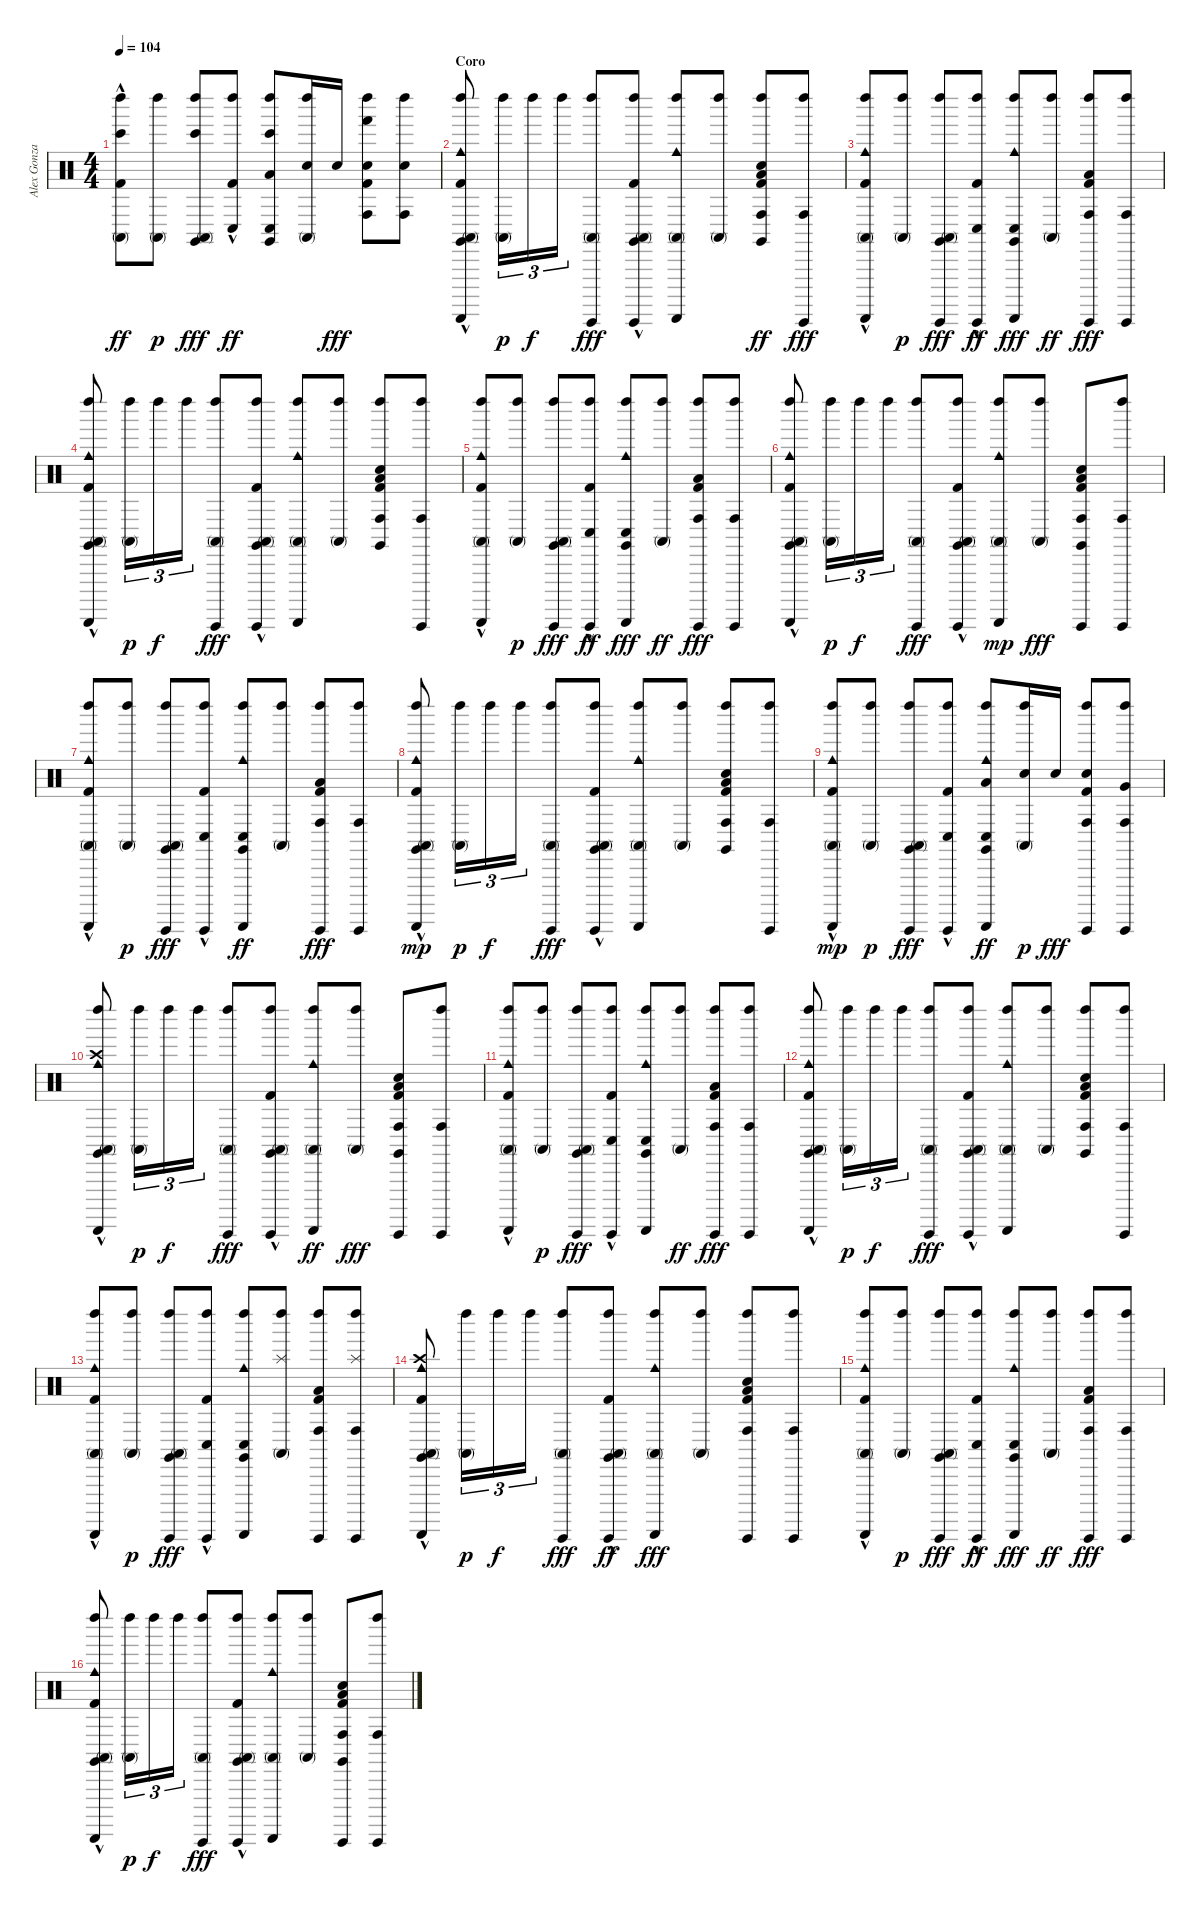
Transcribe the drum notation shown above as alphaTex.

\track ("Alex Gonzalez" "Alex Gonza") {instrument percussion}
\staff {score}
\articulation defaults
\ts (4 4)
\tempo 104
\clef neutral
\ks c
("Conga high (mute)" "Kick (hit) 2"{hac} "Bongo High (hit)" "Left Maraca (hit)").8{dy ff} ("Conga high (mute)" "Left Maraca (hit)").8{dy p} ("Claves (hit)" "Conga high (mute)" "Bongo High (hit)" "Left Maraca (hit)").8{dy fff} ("Conga low (hit)" "Kick (hit) 2"{hac} "Left Maraca (hit)").8{dy ff} ("Low Tom (hit)" "Bongo High (hit)" "Claves (hit)" "Conga low (hit)" "Left Maraca (hit)").8 ("Electric Snare (hit)" "Conga high (mute)" "Left Maraca (hit)").16 "Electric Snare (hit)".16{dy fff} ("Left Maraca (hit)" "Kick (hit) 2" "Electric Snare (hit)" "Conga high (hit)" "Hand (hit)").8 ("Conga high (hit)" "Left Maraca (hit)" "Electric Snare (hit)").8 |
\section ("" "Coro")
("Conga high (mute)" "Claves (hit)"{hac} "Kick (hit) 2"{hac} "Left Maraca (hit)" "Cowbell medium (hit)" "Guiro (scrap-return)").8 ("Conga high (mute)" "Left Maraca (hit)").16{tu (3 2) dy p} "Left Maraca (hit)".16{tu (3 2) dy f} "Left Maraca (hit)".16{tu (3 2)} ("Conga high (mute)" "Left Maraca (hit)" "Guiro (hit)").8{dy fff} ("Claves (hit)"{hac} "Conga high (mute)" "Kick (hit) 2"{hac} "Left Maraca (hit)" "Guiro (hit)").8 ("Conga high (mute)" "Left Maraca (hit)" "Cowbell medium (hit)" "Guiro (scrap-return)").8 ("Conga high (mute)" "Left Maraca (hit)").8 ("Claves (hit)" "Conga high (hit)" "Kick (hit) 2" "Low Tom (hit)" "Electric Snare (hit)" "Left Maraca (hit)").8{dy ff} ("Conga high (hit)" "Left Maraca (hit)" "Guiro (hit)").8{dy fff} |
("Conga high (mute)" "Kick (hit) 2"{hac} "Left Maraca (hit)" "Cowbell medium (hit)" "Guiro (scrap-return)").8 ("Conga high (mute)" "Left Maraca (hit)").8{dy p} ("Conga high (mute)" "Claves (hit)" "Guiro (hit)" "Left Maraca (hit)").8{dy fff} ("Guiro (hit)" "Left Maraca (hit)" "Kick (hit) 2"{hac} "Conga low (hit)").8{dy ff} ("Claves (hit)" "Conga low (hit)" "Left Maraca (hit)" "Cowbell medium (hit)" "Guiro (scrap-return)").8{dy fff} ("Conga high (mute)" "Left Maraca (hit)").8{dy ff} ("Conga high (hit)" "Kick (hit) 2" "Left Maraca (hit)" "Low Tom (hit)" "Guiro (hit)").8{dy fff} ("Conga high (hit)" "Left Maraca (hit)" "Guiro (hit)").8 |
("Claves (hit)"{hac} "Guiro (scrap-return)" "Kick (hit) 2"{hac} "Cowbell medium (hit)" "Conga high (mute)" "Left Maraca (hit)").8 ("Conga high (mute)" "Left Maraca (hit)").16{tu (3 2) dy p} "Left Maraca (hit)".16{tu (3 2) dy f} "Left Maraca (hit)".16{tu (3 2)} ("Conga high (mute)" "Left Maraca (hit)" "Guiro (hit)").8{dy fff} ("Claves (hit)"{hac} "Left Maraca (hit)" "Guiro (hit)" "Conga high (mute)" "Kick (hit) 2"{hac}).8 ("Conga high (mute)" "Left Maraca (hit)" "Cowbell medium (hit)" "Guiro (scrap-return)").8 ("Conga high (mute)" "Left Maraca (hit)").8 ("Claves (hit)" "Conga high (hit)" "Kick (hit) 2" "Left Maraca (hit)" "Low Tom (hit)" "Electric Snare (hit)").8 ("Guiro (hit)" "Conga high (hit)" "Left Maraca (hit)").8 |
("Kick (hit) 2"{hac} "Conga high (mute)" "Left Maraca (hit)" "Guiro (scrap-return)" "Cowbell medium (hit)").8 ("Conga high (mute)" "Left Maraca (hit)").8{dy p} ("Guiro (hit)" "Left Maraca (hit)" "Conga high (mute)" "Claves (hit)").8{dy fff} ("Left Maraca (hit)" "Kick (hit) 2"{hac} "Guiro (hit)" "Conga low (hit)").8{dy ff} ("Left Maraca (hit)" "Claves (hit)" "Guiro (scrap-return)" "Conga low (hit)" "Cowbell medium (hit)").8{dy fff} ("Conga high (mute)" "Left Maraca (hit)").8{dy ff} ("Left Maraca (hit)" "Kick (hit) 2" "Guiro (hit)" "Low Tom (hit)" "Conga high (hit)").8{dy fff} ("Conga high (hit)" "Left Maraca (hit)" "Guiro (hit)").8 |
("Cowbell medium (hit)" "Guiro (scrap-return)" "Conga high (mute)" "Claves (hit)"{hac} "Kick (hit) 2"{hac} "Left Maraca (hit)").8 ("Conga high (mute)" "Left Maraca (hit)").16{tu (3 2) dy p} "Left Maraca (hit)".16{tu (3 2) dy f} "Left Maraca (hit)".16{tu (3 2)} ("Left Maraca (hit)" "Guiro (hit)" "Conga high (mute)").8{dy fff} ("Claves (hit)"{hac} "Conga high (mute)" "Kick (hit) 2"{hac} "Left Maraca (hit)" "Guiro (hit)").8 ("Guiro (scrap-return)" "Cowbell medium (hit)" "Left Maraca (hit)" "Conga high (mute)").8{dy mp} ("Conga high (mute)" "Left Maraca (hit)").8{dy fff} ("Electric Snare (hit)" "Kick (hit) 2" "Conga high (hit)" "Low Tom (hit)" "Guiro (hit)" "Claves (hit)").8 ("Left Maraca (hit)" "Guiro (hit)" "Conga high (hit)").8 |
("Conga high (mute)" "Kick (hit) 2"{hac} "Left Maraca (hit)" "Cowbell medium (hit)" "Guiro (scrap-return)").8 ("Conga high (mute)" "Left Maraca (hit)").8{dy p} ("Claves (hit)" "Left Maraca (hit)" "Guiro (hit)" "Conga high (mute)").8{dy fff} ("Conga low (hit)" "Kick (hit) 2"{hac} "Left Maraca (hit)" "Guiro (hit)").8 ("Guiro (scrap-return)" "Cowbell medium (hit)" "Claves (hit)" "Left Maraca (hit)" "Conga low (hit)").8{dy ff} ("Conga high (mute)" "Left Maraca (hit)").8 ("Left Maraca (hit)" "Conga high (hit)" "Guiro (hit)" "Kick (hit) 2" "Low Tom (hit)").8{dy fff} ("Conga high (hit)" "Left Maraca (hit)" "Guiro (hit)").8 |
("Cowbell medium (hit)" "Claves (hit)"{hac} "Guiro (scrap-return)" "Kick (hit) 2"{hac} "Left Maraca (hit)" "Conga high (mute)").8{dy mp} ("Conga high (mute)" "Left Maraca (hit)").16{tu (3 2) dy p} "Left Maraca (hit)".16{tu (3 2) dy f} "Left Maraca (hit)".16{tu (3 2)} ("Conga high (mute)" "Left Maraca (hit)" "Guiro (hit)").8{dy fff} ("Claves (hit)"{hac} "Conga high (mute)" "Kick (hit) 2"{hac} "Left Maraca (hit)" "Guiro (hit)").8 ("Conga high (mute)" "Left Maraca (hit)" "Cowbell medium (hit)" "Guiro (scrap-return)").8 ("Conga high (mute)" "Left Maraca (hit)").8 ("Claves (hit)" "Conga high (hit)" "Kick (hit) 2" "Left Maraca (hit)" "Low Tom (hit)" "Electric Snare (hit)").8 ("Conga high (hit)" "Left Maraca (hit)" "Guiro (hit)").8 |
("Kick (hit) 2"{hac} "Left Maraca (hit)" "Cowbell medium (hit)" "Guiro (scrap-return)" "Conga high (mute)").8{dy mp} ("Conga high (mute)" "Left Maraca (hit)").8{dy p} ("Claves (hit)" "Conga high (mute)" "Left Maraca (hit)" "Guiro (hit)").8{dy fff} ("Conga low (hit)" "Kick (hit) 2"{hac} "Left Maraca (hit)" "Guiro (hit)").8 ("Cowbell medium (hit)" "Low Tom (hit)" "Conga low (hit)" "Guiro (scrap-return)" "Claves (hit)" "Left Maraca (hit)").8{dy ff} ("Left Maraca (hit)" "Electric Snare (hit)" "Conga high (mute)").16{dy p} "Electric Snare (hit)".16{dy fff} ("Guiro (hit)" "Left Maraca (hit)" "Conga high (hit)" "Electric Snare (hit)" "Kick (hit) 2").8 ("Conga high (hit)" "Left Maraca (hit)" "Guiro (hit)" "Very Low Tom (hit)").8 |
("Guiro (scrap-return)" "Crash high (hit)" "Claves (hit)"{hac} "Conga high (mute)" "Cowbell medium (hit)" "Left Maraca (hit)").8 ("Conga high (mute)" "Left Maraca (hit)").16{tu (3 2) dy p} "Left Maraca (hit)".16{tu (3 2) dy f} "Left Maraca (hit)".16{tu (3 2)} ("Conga high (mute)" "Left Maraca (hit)" "Guiro (hit)").8{dy fff} ("Claves (hit)"{hac} "Conga high (mute)" "Kick (hit) 2"{hac} "Left Maraca (hit)" "Guiro (hit)").8 ("Conga high (mute)" "Cowbell medium (hit)" "Guiro (scrap-return)" "Left Maraca (hit)").8{dy ff} ("Conga high (mute)" "Left Maraca (hit)").8{dy fff} ("Claves (hit)" "Guiro (hit)" "Kick (hit) 2" "Conga high (hit)" "Low Tom (hit)" "Electric Snare (hit)").8 ("Conga high (hit)" "Left Maraca (hit)" "Guiro (hit)").8 |
("Conga high (mute)" "Kick (hit) 2"{hac} "Left Maraca (hit)" "Cowbell medium (hit)" "Guiro (scrap-return)").8 ("Conga high (mute)" "Left Maraca (hit)").8{dy p} ("Conga high (mute)" "Left Maraca (hit)" "Claves (hit)" "Guiro (hit)").8{dy fff} ("Conga low (hit)" "Kick (hit) 2"{hac} "Left Maraca (hit)" "Guiro (hit)").8 ("Guiro (scrap-return)" "Claves (hit)" "Conga low (hit)" "Left Maraca (hit)" "Cowbell medium (hit)").8 ("Conga high (mute)" "Left Maraca (hit)").8{dy ff} ("Guiro (hit)" "Left Maraca (hit)" "Kick (hit) 2" "Low Tom (hit)" "Conga high (hit)").8{dy fff} ("Left Maraca (hit)" "Guiro (hit)" "Conga high (hit)").8 |
("Conga high (mute)" "Kick (hit) 2"{hac} "Guiro (scrap-return)" "Left Maraca (hit)" "Cowbell medium (hit)" "Claves (hit)"{hac}).8 ("Conga high (mute)" "Left Maraca (hit)").16{tu (3 2) dy p} "Left Maraca (hit)".16{tu (3 2) dy f} "Left Maraca (hit)".16{tu (3 2)} ("Left Maraca (hit)" "Guiro (hit)" "Conga high (mute)").8{dy fff} ("Kick (hit) 2"{hac} "Conga high (mute)" "Left Maraca (hit)" "Claves (hit)"{hac} "Guiro (hit)").8 ("Conga high (mute)" "Left Maraca (hit)" "Cowbell medium (hit)" "Guiro (scrap-return)").8 ("Conga high (mute)" "Left Maraca (hit)").8 ("Kick (hit) 2" "Claves (hit)" "Low Tom (hit)" "Conga high (hit)" "Left Maraca (hit)" "Electric Snare (hit)").8 ("Conga high (hit)" "Left Maraca (hit)" "Guiro (hit)").8 |
("Conga high (mute)" "Left Maraca (hit)" "Kick (hit) 2"{hac} "Guiro (scrap-return)" "Cowbell medium (hit)").8 ("Conga high (mute)" "Left Maraca (hit)").8{dy p} ("Left Maraca (hit)" "Guiro (hit)" "Claves (hit)" "Conga high (mute)").8{dy fff} ("Conga low (hit)" "Kick (hit) 2"{hac} "Left Maraca (hit)" "Guiro (hit)").8 ("Left Maraca (hit)" "Cowbell medium (hit)" "Claves (hit)" "Conga low (hit)" "Guiro (scrap-return)").8 ("Conga high (mute)" "Left Maraca (hit)" "Splash (hit)").8 ("Conga high (hit)" "Kick (hit) 2" "Left Maraca (hit)" "Low Tom (hit)" "Guiro (hit)").8 ("Splash (hit)" "Conga high (hit)" "Left Maraca (hit)" "Guiro (hit)").8 |
("Conga high (mute)" "Guiro (scrap-return)" "Claves (hit)"{hac} "Kick (hit) 2"{hac} "Cowbell medium (hit)" "Crash high (hit)"{hac}).8 ("Conga high (mute)" "Left Maraca (hit)").16{tu (3 2) dy p} "Left Maraca (hit)".16{tu (3 2) dy f} "Left Maraca (hit)".16{tu (3 2)} ("Conga high (mute)" "Left Maraca (hit)" "Guiro (hit)").8{dy fff} ("Conga high (mute)" "Guiro (hit)" "Claves (hit)" "Kick (hit) 2"{hac} "Left Maraca (hit)").8{dy ff} ("Left Maraca (hit)" "Conga high (mute)" "Guiro (scrap-return)" "Cowbell medium (hit)").8{dy fff} ("Conga high (mute)" "Left Maraca (hit)").8 ("Left Maraca (hit)" "Guiro (hit)" "Conga high (hit)" "Low Tom (hit)" "Electric Snare (hit)" "Kick (hit) 2").8 ("Guiro (hit)" "Conga high (hit)" "Left Maraca (hit)").8 |
("Conga high (mute)" "Kick (hit) 2"{hac} "Left Maraca (hit)" "Cowbell medium (hit)" "Guiro (scrap-return)").8 ("Conga high (mute)" "Left Maraca (hit)").8{dy p} ("Claves (hit)" "Left Maraca (hit)" "Guiro (hit)" "Conga high (mute)").8{dy fff} ("Kick (hit) 2"{hac} "Guiro (hit)" "Left Maraca (hit)" "Conga low (hit)").8{dy ff} ("Cowbell medium (hit)" "Claves (hit)" "Left Maraca (hit)" "Conga low (hit)" "Guiro (scrap-return)").8{dy fff} ("Conga high (mute)" "Left Maraca (hit)").8{dy ff} ("Kick (hit) 2" "Left Maraca (hit)" "Conga high (hit)" "Low Tom (hit)" "Guiro (hit)").8{dy fff} ("Conga high (hit)" "Left Maraca (hit)" "Guiro (hit)").8 |
("Conga high (mute)" "Cowbell medium (hit)" "Left Maraca (hit)" "Kick (hit) 2"{hac} "Claves (hit)"{hac} "Guiro (scrap-return)").8 ("Conga high (mute)" "Left Maraca (hit)").16{tu (3 2) dy p} "Left Maraca (hit)".16{tu (3 2) dy f} "Left Maraca (hit)".16{tu (3 2)} ("Conga high (mute)" "Left Maraca (hit)" "Guiro (hit)").8{dy fff} ("Kick (hit) 2"{hac} "Claves (hit)"{hac} "Conga high (mute)" "Left Maraca (hit)" "Guiro (hit)").8 ("Left Maraca (hit)" "Conga high (mute)" "Guiro (scrap-return)" "Cowbell medium (hit)").8 ("Conga high (mute)" "Left Maraca (hit)").8 ("Claves (hit)" "Kick (hit) 2" "Electric Snare (hit)" "Low Tom (hit)" "Guiro (hit)" "Conga high (hit)").8 ("Conga high (hit)" "Left Maraca (hit)" "Guiro (hit)").8
